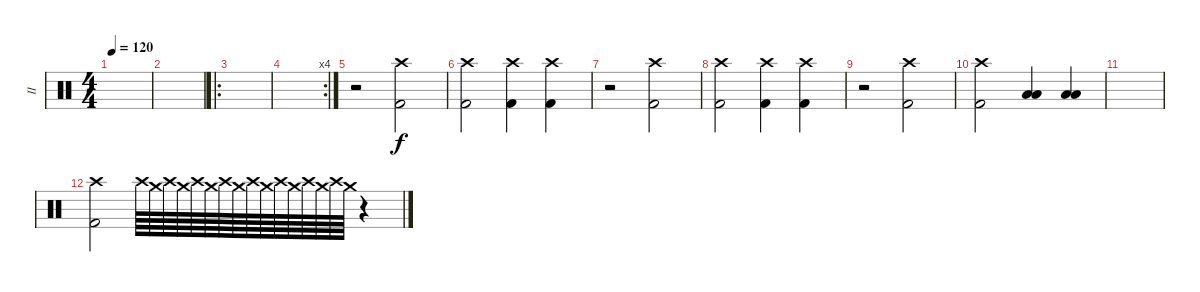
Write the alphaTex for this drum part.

\track ("II" "II") {instrument percussion}
\staff {score}
\articulation defaults
\ts (4 4)
\tempo 120
\clef neutral
\ks c
|
|
\ro
|
\rc 4
|
r.2 ("Crash high (hit)" "Kick (hit) 2").2 |
("Crash high (hit)" "Kick (hit) 2").2 ("Crash high (hit)" "Kick (hit) 2").4 ("Crash high (hit)" "Kick (hit) 2").4 |
r.2 ("Crash high (hit)" "Kick (hit) 2").2 |
("Crash high (hit)" "Kick (hit) 2").2 ("Crash high (hit)" "Kick (hit) 2").4 ("Crash high (hit)" "Kick (hit) 2").4 |
r.2 ("Crash high (hit)" "Kick (hit) 2").2 |
("Crash high (hit)" "Kick (hit) 2").2 ("Low Tom (hit)" "Low Tom (hit)").4 ("Low Tom (hit)" "Low Floor Tom (hit)").4 |
|
("Crash high (hit)" "Kick (hit) 2").2 "Crash high (hit)".64 "Crash medium (hit)".64 "Crash high (hit)".64 "Crash medium (hit)".64 "Crash high (hit)".64 "Crash medium (hit)".64 "Crash high (hit)".64 "Crash medium (hit)".64 "Crash high (hit)".64 "Crash medium (hit)".64 "Crash high (hit)".64 "Crash medium (hit)".64 "Crash high (hit)".64 "Crash medium (hit)".64 "Crash high (hit)".64 "Crash medium (hit)".64 r.4
